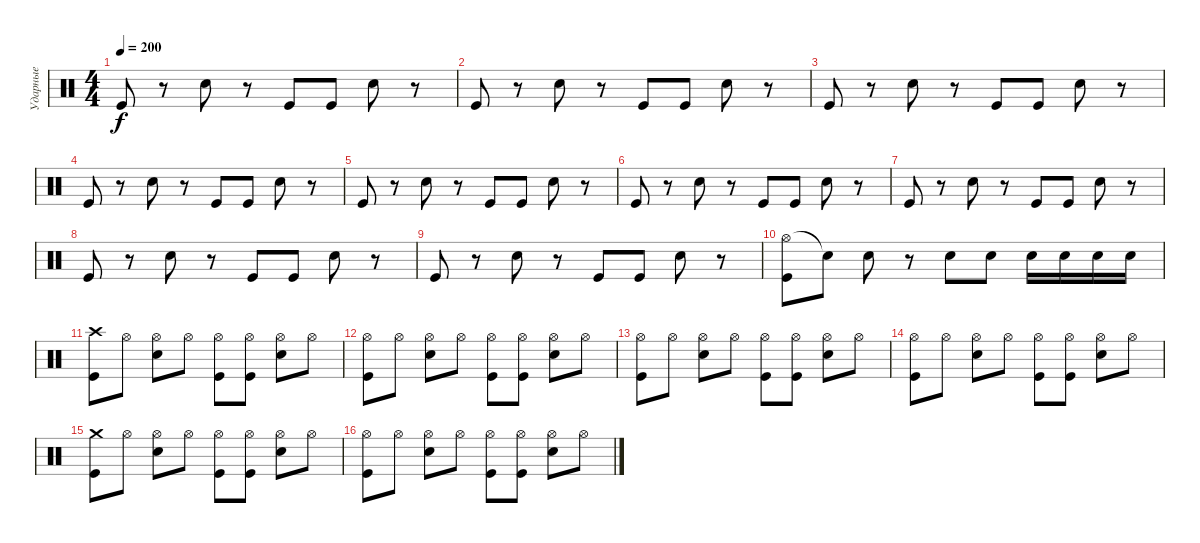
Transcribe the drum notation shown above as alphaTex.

\track ("Ударные" "Ударные") {instrument percussion}
\staff {score}
\articulation defaults
\ts (4 4)
\tempo 200
\clef neutral
\ks c "Kick (hit)".8{dy f}
r.8 "Snare (hit) 2".8 r.8 "Kick (hit)".8 "Kick (hit)".8 "Snare (hit) 2".8 r.8 |
"Kick (hit)".8 r.8 "Snare (hit) 2".8 r.8 "Kick (hit)".8 "Kick (hit)".8 "Snare (hit) 2".8 r.8 |
"Kick (hit)".8 r.8 "Snare (hit) 2".8 r.8 "Kick (hit)".8 "Kick (hit)".8 "Snare (hit) 2".8 r.8 |
"Kick (hit)".8 r.8 "Snare (hit) 2".8 r.8 "Kick (hit)".8 "Kick (hit)".8 "Snare (hit) 2".8 r.8 |
"Kick (hit)".8 r.8 "Snare (hit) 2".8 r.8 "Kick (hit)".8 "Kick (hit)".8 "Snare (hit) 2".8 r.8 |
"Kick (hit)".8 r.8 "Snare (hit) 2".8 r.8 "Kick (hit)".8 "Kick (hit)".8 "Snare (hit) 2".8 r.8 |
"Kick (hit)".8 r.8 "Snare (hit) 2".8 r.8 "Kick (hit)".8 "Kick (hit)".8 "Snare (hit) 2".8 r.8 |
"Kick (hit)".8 r.8 "Snare (hit) 2".8 r.8 "Kick (hit)".8 "Kick (hit)".8 "Snare (hit) 2".8 r.8 |
"Kick (hit)".8 r.8 "Snare (hit) 2".8 r.8 "Kick (hit)".8 "Kick (hit)".8 "Snare (hit) 2".8 r.8 |
("Hi-Hat (open)" "Kick (hit)").8 "Snare (hit)"{t}.8 "Snare (hit) 2".8 r.8 "Snare (hit) 2".8 "Snare (hit) 2".8 "Snare (hit) 2".16 "Snare (hit) 2".16 "Snare (hit) 2".16 "Snare (hit) 2".16 |
("Crash high (hit)" "Kick (hit)").8 "Hi-Hat (open)".8 ("Hi-Hat (open)" "Snare (hit) 2").8 "Hi-Hat (open)".8 ("Hi-Hat (open)" "Kick (hit)").8 ("Hi-Hat (open)" "Kick (hit)").8 ("Hi-Hat (open)" "Snare (hit) 2").8 "Hi-Hat (open)".8 |
("Hi-Hat (open)" "Kick (hit)").8 "Hi-Hat (open)".8 ("Hi-Hat (open)" "Snare (hit) 2").8 "Hi-Hat (open)".8 ("Hi-Hat (open)" "Kick (hit)").8 ("Hi-Hat (open)" "Kick (hit)").8 ("Hi-Hat (open)" "Snare (hit) 2").8 "Hi-Hat (open)".8 |
("Hi-Hat (open)" "Kick (hit)").8 "Hi-Hat (open)".8 ("Hi-Hat (open)" "Snare (hit) 2").8 "Hi-Hat (open)".8 ("Hi-Hat (open)" "Kick (hit)").8 ("Hi-Hat (open)" "Kick (hit)").8 ("Hi-Hat (open)" "Snare (hit) 2").8 "Hi-Hat (open)".8 |
("Hi-Hat (open)" "Kick (hit)").8 "Hi-Hat (open)".8 ("Hi-Hat (open)" "Snare (hit) 2").8 "Hi-Hat (open)".8 ("Hi-Hat (open)" "Kick (hit)").8 ("Hi-Hat (open)" "Kick (hit)").8 ("Hi-Hat (open)" "Snare (hit) 2").8 "Hi-Hat (open)".8 |
("Crash medium (hit)" "Kick (hit)").8 "Hi-Hat (open)".8 ("Hi-Hat (open)" "Snare (hit) 2").8 "Hi-Hat (open)".8 ("Hi-Hat (open)" "Kick (hit)").8 ("Hi-Hat (open)" "Kick (hit)").8 ("Hi-Hat (open)" "Snare (hit) 2").8 "Hi-Hat (open)".8 |
("Hi-Hat (open)" "Kick (hit)").8 "Hi-Hat (open)".8 ("Hi-Hat (open)" "Snare (hit) 2").8 "Hi-Hat (open)".8 ("Hi-Hat (open)" "Kick (hit)").8 ("Hi-Hat (open)" "Kick (hit)").8 ("Hi-Hat (open)" "Snare (hit) 2").8 "Hi-Hat (open)".8
